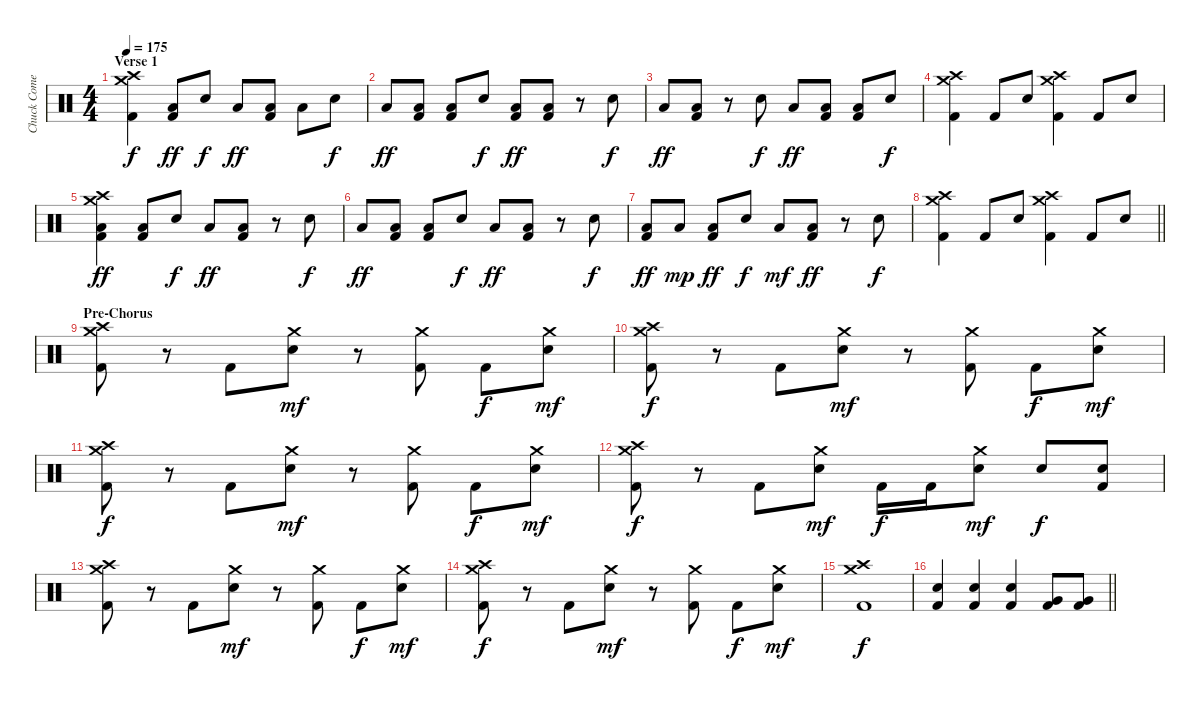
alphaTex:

\track ("Chuck Comeau" "Chuck Come") {instrument percussion}
\staff {score}
\articulation defaults
\ts (4 4)
\section ("" "Verse 1")
\tempo 175
\clef neutral
\ks c
("Crash high (hit)" "Crash medium (hit)" "Kick (hit) 2").4{dy f} ("Low Floor Tom (hit)" "Kick (hit) 2").8{dy ff} "Electric Snare (hit)".8{dy f} "Low Floor Tom (hit)".8{dy ff} ("Low Floor Tom (hit)" "Kick (hit) 2").8 "Low Floor Tom (hit)".8 "Electric Snare (hit)".8{dy f} |
"Low Floor Tom (hit)".8{dy ff} ("Low Floor Tom (hit)" "Kick (hit) 2").8 ("Low Floor Tom (hit)" "Kick (hit) 2").8 "Electric Snare (hit)".8{dy f} ("Low Floor Tom (hit)" "Kick (hit) 2").8{dy ff} ("Low Floor Tom (hit)" "Kick (hit) 2").8 r.8 "Electric Snare (hit)".8{dy f} |
"Low Floor Tom (hit)".8{dy ff} ("Low Floor Tom (hit)" "Kick (hit) 2").8 r.8 "Electric Snare (hit)".8{dy f} "Low Floor Tom (hit)".8{dy ff} ("Low Floor Tom (hit)" "Kick (hit) 2").8 ("Low Floor Tom (hit)" "Kick (hit) 2").8 "Electric Snare (hit)".8{dy f} |
("Crash high (hit)" "Crash medium (hit)" "Kick (hit) 2").4 "Kick (hit) 2".8 "Electric Snare (hit)".8 ("Crash high (hit)" "Crash medium (hit)" "Kick (hit) 2").4 "Kick (hit) 2".8 "Electric Snare (hit)".8 |
("Crash high (hit)" "Crash medium (hit)" "Low Floor Tom (hit)" "Kick (hit) 2").4{dy ff} ("Low Floor Tom (hit)" "Kick (hit) 2").8 "Electric Snare (hit)".8{dy f} "Low Floor Tom (hit)".8{dy ff} ("Low Floor Tom (hit)" "Kick (hit) 2").8 r.8 "Electric Snare (hit)".8{dy f} |
"Low Floor Tom (hit)".8{dy ff} ("Low Floor Tom (hit)" "Kick (hit) 2").8 ("Low Floor Tom (hit)" "Kick (hit) 2").8 "Electric Snare (hit)".8{dy f} "Low Floor Tom (hit)".8{dy ff} ("Low Floor Tom (hit)" "Kick (hit) 2").8 r.8 "Electric Snare (hit)".8{dy f} |
("Low Floor Tom (hit)" "Kick (hit) 2").8{dy ff} "Low Floor Tom (hit)".8{dy mp} ("Low Floor Tom (hit)" "Kick (hit) 2").8{dy ff} "Electric Snare (hit)".8{dy f} "Low Floor Tom (hit)".8{dy mf} ("Low Floor Tom (hit)" "Kick (hit) 2").8{dy ff} r.8 "Electric Snare (hit)".8{dy f} |
\barLineRight lightlight
("Crash high (hit)" "Crash medium (hit)" "Kick (hit) 2").4 "Kick (hit) 2".8 "Electric Snare (hit)".8 ("Crash high (hit)" "Crash medium (hit)" "Kick (hit) 2").4 "Kick (hit) 2".8 "Electric Snare (hit)".8 |
\section ("" "Pre-Chorus")
("Crash high (hit)" "Crash medium (hit)" "Kick (hit) 2").8 r.8 "Kick (hit) 2".8 ("Crash medium (hit)" "Electric Snare (hit)").8{dy mf} r.8 ("Crash medium (hit)" "Kick (hit) 2").8 "Kick (hit) 2".8{dy f} ("Crash medium (hit)" "Electric Snare (hit)").8{dy mf} |
("Crash high (hit)" "Crash medium (hit)" "Kick (hit) 2").8{dy f} r.8 "Kick (hit) 2".8 ("Crash medium (hit)" "Electric Snare (hit)").8{dy mf} r.8 ("Crash medium (hit)" "Kick (hit) 2").8 "Kick (hit) 2".8{dy f} ("Crash medium (hit)" "Electric Snare (hit)").8{dy mf} |
("Crash high (hit)" "Crash medium (hit)" "Kick (hit) 2").8{dy f} r.8 "Kick (hit) 2".8 ("Crash medium (hit)" "Electric Snare (hit)").8{dy mf} r.8 ("Crash medium (hit)" "Kick (hit) 2").8 "Kick (hit) 2".8{dy f} ("Crash medium (hit)" "Electric Snare (hit)").8{dy mf} |
("Crash high (hit)" "Crash medium (hit)" "Kick (hit) 2").8{dy f} r.8 "Kick (hit) 2".8 ("Crash medium (hit)" "Electric Snare (hit)").8{dy mf} "Kick (hit) 2".16{dy f} "Kick (hit) 2".16 ("Crash medium (hit)" "Electric Snare (hit)").8{dy mf} "Electric Snare (hit)".8{dy f} ("Electric Snare (hit)" "Kick (hit) 2").8 |
("Crash high (hit)" "Crash medium (hit)" "Kick (hit) 2").8 r.8 "Kick (hit) 2".8 ("Crash medium (hit)" "Electric Snare (hit)").8{dy mf} r.8 ("Crash medium (hit)" "Kick (hit) 2").8 "Kick (hit) 2".8{dy f} ("Crash medium (hit)" "Electric Snare (hit)").8{dy mf} |
("Crash high (hit)" "Crash medium (hit)" "Kick (hit) 2").8{dy f} r.8 "Kick (hit) 2".8 ("Crash medium (hit)" "Electric Snare (hit)").8{dy mf} r.8 ("Crash medium (hit)" "Kick (hit) 2").8 "Kick (hit) 2".8{dy f} ("Crash medium (hit)" "Electric Snare (hit)").8{dy mf} |
("Crash high (hit)" "Crash medium (hit)" "Kick (hit) 2").1{dy f} |
\barLineRight lightlight
("Electric Snare (hit)" "Kick (hit) 2").4 ("Electric Snare (hit)" "Kick (hit) 2").4 ("Electric Snare (hit)" "Kick (hit) 2").4 ("Very Low Tom (hit)" "Kick (hit) 2").8 ("Very Low Tom (hit)" "Kick (hit) 2").8
